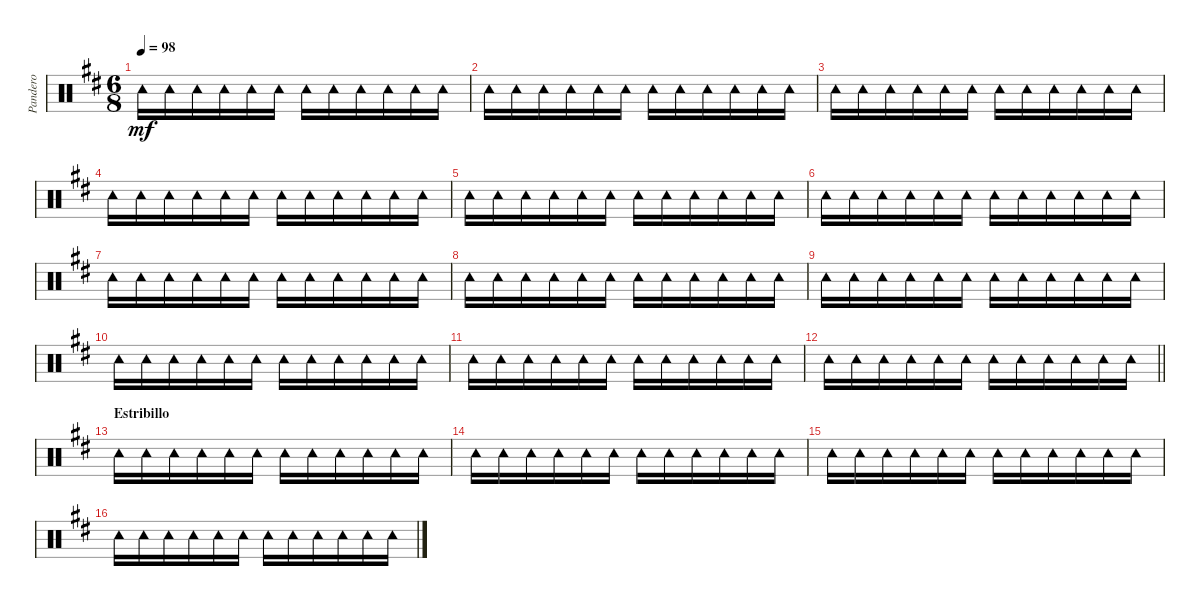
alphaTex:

\track ("Pandero" "Pandero") {instrument percussion}
\staff {score}
\articulation defaults
\ts (6 8)
\tempo 98
\clef neutral
\ks d "Tambourine (hit)".16{dy mf} "Tambourine (hit)".16 "Tambourine (hit)".16 "Tambourine (hit)".16 "Tambourine (hit)".16 "Tambourine (hit)".16 "Tambourine (hit)".16 "Tambourine (hit)".16 "Tambourine (hit)".16 "Tambourine (hit)".16 "Tambourine (hit)".16 "Tambourine (hit)".16
|
"Tambourine (hit)".16 "Tambourine (hit)".16 "Tambourine (hit)".16 "Tambourine (hit)".16 "Tambourine (hit)".16 "Tambourine (hit)".16 "Tambourine (hit)".16 "Tambourine (hit)".16 "Tambourine (hit)".16 "Tambourine (hit)".16 "Tambourine (hit)".16 "Tambourine (hit)".16 |
"Tambourine (hit)".16 "Tambourine (hit)".16 "Tambourine (hit)".16 "Tambourine (hit)".16 "Tambourine (hit)".16 "Tambourine (hit)".16 "Tambourine (hit)".16 "Tambourine (hit)".16 "Tambourine (hit)".16 "Tambourine (hit)".16 "Tambourine (hit)".16 "Tambourine (hit)".16 |
"Tambourine (hit)".16 "Tambourine (hit)".16 "Tambourine (hit)".16 "Tambourine (hit)".16 "Tambourine (hit)".16 "Tambourine (hit)".16 "Tambourine (hit)".16 "Tambourine (hit)".16 "Tambourine (hit)".16 "Tambourine (hit)".16 "Tambourine (hit)".16 "Tambourine (hit)".16 |
"Tambourine (hit)".16 "Tambourine (hit)".16 "Tambourine (hit)".16 "Tambourine (hit)".16 "Tambourine (hit)".16 "Tambourine (hit)".16 "Tambourine (hit)".16 "Tambourine (hit)".16 "Tambourine (hit)".16 "Tambourine (hit)".16 "Tambourine (hit)".16 "Tambourine (hit)".16 |
"Tambourine (hit)".16 "Tambourine (hit)".16 "Tambourine (hit)".16 "Tambourine (hit)".16 "Tambourine (hit)".16 "Tambourine (hit)".16 "Tambourine (hit)".16 "Tambourine (hit)".16 "Tambourine (hit)".16 "Tambourine (hit)".16 "Tambourine (hit)".16 "Tambourine (hit)".16 |
"Tambourine (hit)".16 "Tambourine (hit)".16 "Tambourine (hit)".16 "Tambourine (hit)".16 "Tambourine (hit)".16 "Tambourine (hit)".16 "Tambourine (hit)".16 "Tambourine (hit)".16 "Tambourine (hit)".16 "Tambourine (hit)".16 "Tambourine (hit)".16 "Tambourine (hit)".16 |
"Tambourine (hit)".16 "Tambourine (hit)".16 "Tambourine (hit)".16 "Tambourine (hit)".16 "Tambourine (hit)".16 "Tambourine (hit)".16 "Tambourine (hit)".16 "Tambourine (hit)".16 "Tambourine (hit)".16 "Tambourine (hit)".16 "Tambourine (hit)".16 "Tambourine (hit)".16 |
"Tambourine (hit)".16 "Tambourine (hit)".16 "Tambourine (hit)".16 "Tambourine (hit)".16 "Tambourine (hit)".16 "Tambourine (hit)".16 "Tambourine (hit)".16 "Tambourine (hit)".16 "Tambourine (hit)".16 "Tambourine (hit)".16 "Tambourine (hit)".16 "Tambourine (hit)".16 |
"Tambourine (hit)".16 "Tambourine (hit)".16 "Tambourine (hit)".16 "Tambourine (hit)".16 "Tambourine (hit)".16 "Tambourine (hit)".16 "Tambourine (hit)".16 "Tambourine (hit)".16 "Tambourine (hit)".16 "Tambourine (hit)".16 "Tambourine (hit)".16 "Tambourine (hit)".16 |
"Tambourine (hit)".16 "Tambourine (hit)".16 "Tambourine (hit)".16 "Tambourine (hit)".16 "Tambourine (hit)".16 "Tambourine (hit)".16 "Tambourine (hit)".16 "Tambourine (hit)".16 "Tambourine (hit)".16 "Tambourine (hit)".16 "Tambourine (hit)".16 "Tambourine (hit)".16 |
\barLineRight lightlight "Tambourine (hit)".16 "Tambourine (hit)".16 "Tambourine (hit)".16 "Tambourine (hit)".16 "Tambourine (hit)".16 "Tambourine (hit)".16 "Tambourine (hit)".16 "Tambourine (hit)".16 "Tambourine (hit)".16 "Tambourine (hit)".16 "Tambourine (hit)".16 "Tambourine (hit)".16
|
\section ("" "Estribillo")
"Tambourine (hit)".16 "Tambourine (hit)".16 "Tambourine (hit)".16 "Tambourine (hit)".16 "Tambourine (hit)".16 "Tambourine (hit)".16 "Tambourine (hit)".16 "Tambourine (hit)".16 "Tambourine (hit)".16 "Tambourine (hit)".16 "Tambourine (hit)".16 "Tambourine (hit)".16 |
"Tambourine (hit)".16 "Tambourine (hit)".16 "Tambourine (hit)".16 "Tambourine (hit)".16 "Tambourine (hit)".16 "Tambourine (hit)".16 "Tambourine (hit)".16 "Tambourine (hit)".16 "Tambourine (hit)".16 "Tambourine (hit)".16 "Tambourine (hit)".16 "Tambourine (hit)".16 |
"Tambourine (hit)".16 "Tambourine (hit)".16 "Tambourine (hit)".16 "Tambourine (hit)".16 "Tambourine (hit)".16 "Tambourine (hit)".16 "Tambourine (hit)".16 "Tambourine (hit)".16 "Tambourine (hit)".16 "Tambourine (hit)".16 "Tambourine (hit)".16 "Tambourine (hit)".16 |
"Tambourine (hit)".16 "Tambourine (hit)".16 "Tambourine (hit)".16 "Tambourine (hit)".16 "Tambourine (hit)".16 "Tambourine (hit)".16 "Tambourine (hit)".16 "Tambourine (hit)".16 "Tambourine (hit)".16 "Tambourine (hit)".16 "Tambourine (hit)".16 "Tambourine (hit)".16
